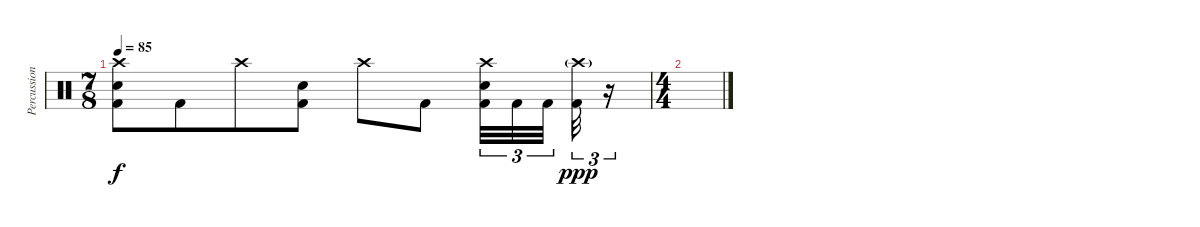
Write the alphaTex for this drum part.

\track ("Percussion" "Percussion") {instrument percussion}
\staff {score}
\articulation defaults
\ts (7 8)
\tempo 85
\clef neutral
\ks c
("Crash high (hit)" "Snare (hit) 2" "Kick (hit) 2").8{dy f} "Kick (hit) 2".8 "Crash high (hit)".8 ("Snare (hit) 2" "Kick (hit) 2").8 "Crash high (hit)".8 "Kick (hit) 2".8 ("Crash high (hit)" "Snare (hit) 2" "Kick (hit) 2").32{tu (3 2)} "Kick (hit) 2".32{tu (3 2)} "Kick (hit) 2".32{tu (3 2) beam splitsecondary} ("Crash high (hit)"{g} "Kick (hit) 2").32{tu (3 2) dy ppp} r.16{tu (3 2)} |
\ts (4 4)
